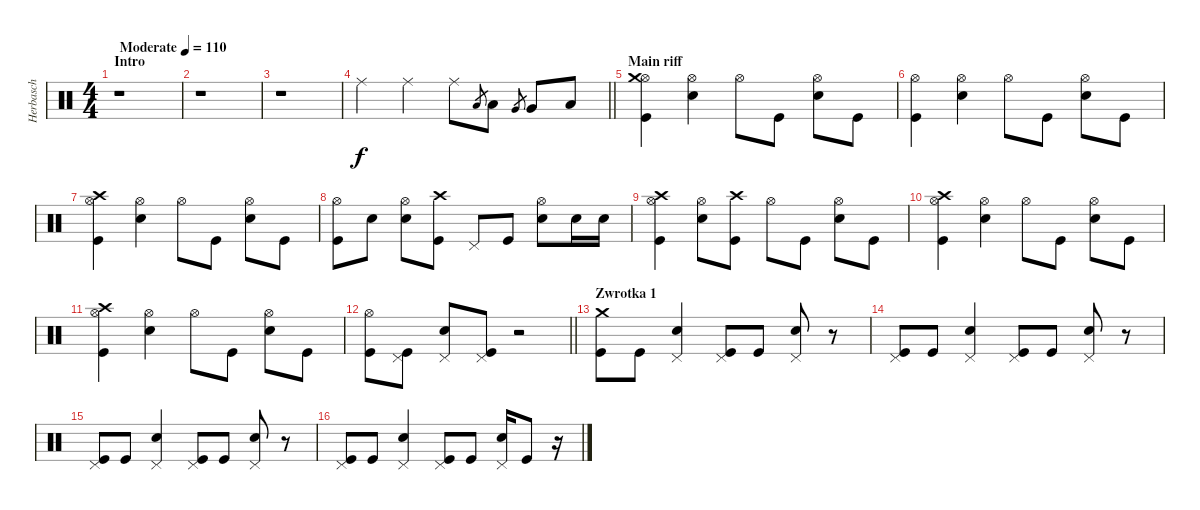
\track ("Herbasch" "Herbasch") {instrument percussion}
\staff {score}
\articulation defaults
\ts (4 4)
\section ("" "Intro")
\tempo (110 "Moderate")
\clef neutral
\ks c
r.1{dy f} |
r.1 |
r.1 |
\barLineRight lightlight "Ride (middle)".4 "Ride (middle)".4 "Ride (middle)".8 "Low Tom (hit)".8{gr} "Low Tom (hit)".8 "Very Low Tom (hit)".8{gr} "Very Low Tom (hit)".8 "Low Floor Tom (hit)".8
|
\section ("" "Main riff")
("Hi-Hat (open)" "Kick (hit)" "Crash medium (hit)").4 ("Hi-Hat (open)" "Electric Snare (hit)").4 "Hi-Hat (open)".8 "Kick (hit)".8 ("Hi-Hat (open)" "Electric Snare (hit)").8 "Kick (hit)".8 |
("Hi-Hat (open)" "Kick (hit)").4 ("Hi-Hat (open)" "Electric Snare (hit)").4 "Hi-Hat (open)".8 "Kick (hit)".8 ("Hi-Hat (open)" "Electric Snare (hit)").8 "Kick (hit)".8 |
("Hi-Hat (open)" "Kick (hit)" "Crash high (hit)").4 ("Hi-Hat (open)" "Electric Snare (hit)").4 "Hi-Hat (open)".8 "Kick (hit)".8 ("Hi-Hat (open)" "Electric Snare (hit)").8 "Kick (hit)".8 |
("Hi-Hat (open)" "Kick (hit)").8 "Electric Snare (hit)".8 ("Hi-Hat (open)" "Electric Snare (hit)").8 ("Kick (hit)" "Crash high (hit)").8 "Pedal Hi-Hat (hit)".8 "Kick (hit)".8 ("Hi-Hat (open)" "Electric Snare (hit)").8 "Electric Snare (hit)".16 "Electric Snare (hit)".16 |
("Hi-Hat (open)" "Kick (hit)" "Crash high (hit)").4 ("Hi-Hat (open)" "Electric Snare (hit)").8 ("Kick (hit)" "Crash high (hit)").8 "Hi-Hat (open)".8 "Kick (hit)".8 ("Hi-Hat (open)" "Electric Snare (hit)").8 "Kick (hit)".8 |
("Hi-Hat (open)" "Kick (hit)" "Crash high (hit)").4 ("Hi-Hat (open)" "Electric Snare (hit)").4 "Hi-Hat (open)".8 "Kick (hit)".8 ("Hi-Hat (open)" "Electric Snare (hit)").8 "Kick (hit)".8 |
("Hi-Hat (open)" "Kick (hit)" "Crash high (hit)").4 ("Hi-Hat (open)" "Electric Snare (hit)").4 "Hi-Hat (open)".8 "Kick (hit)".8 ("Hi-Hat (open)" "Electric Snare (hit)").8 "Kick (hit)".8 |
\barLineRight lightlight
("Hi-Hat (open)" "Kick (hit)").8 ("Pedal Hi-Hat (hit)" "Kick (hit)").8 ("Pedal Hi-Hat (hit)" "Electric Snare (hit)").8 ("Pedal Hi-Hat (hit)" "Kick (hit)").8 r.2 |
\section ("" "Zwrotka 1")
("Kick (hit)" "Crash medium (hit)").8 "Kick (hit)".8 ("Pedal Hi-Hat (hit)" "Electric Snare (hit)").4 ("Pedal Hi-Hat (hit)" "Kick (hit)").8 "Kick (hit)".8 ("Pedal Hi-Hat (hit)" "Electric Snare (hit)").8 r.8 |
("Pedal Hi-Hat (hit)" "Kick (hit)").8 "Kick (hit)".8 ("Pedal Hi-Hat (hit)" "Electric Snare (hit)").4 ("Pedal Hi-Hat (hit)" "Kick (hit)").8 "Kick (hit)".8 ("Pedal Hi-Hat (hit)" "Electric Snare (hit)").8 r.8 |
("Pedal Hi-Hat (hit)" "Kick (hit)").8 "Kick (hit)".8 ("Pedal Hi-Hat (hit)" "Electric Snare (hit)").4 ("Pedal Hi-Hat (hit)" "Kick (hit)").8 "Kick (hit)".8 ("Pedal Hi-Hat (hit)" "Electric Snare (hit)").8 r.8 |
("Pedal Hi-Hat (hit)" "Kick (hit)").8 "Kick (hit)".8 ("Pedal Hi-Hat (hit)" "Electric Snare (hit)").4 ("Pedal Hi-Hat (hit)" "Kick (hit)").8 "Kick (hit)".8 ("Pedal Hi-Hat (hit)" "Electric Snare (hit)").16 "Kick (hit)".8 r.16
